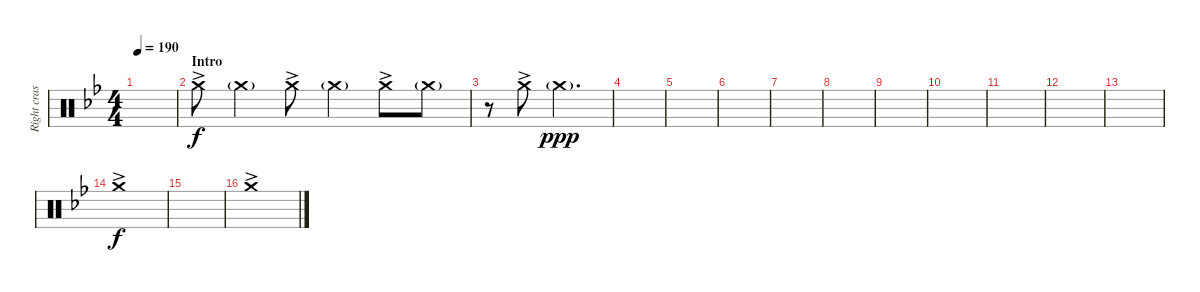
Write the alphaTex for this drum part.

\track ("Right crash" "Right cras") {instrument percussion}
\staff {score}
\articulation defaults
\ts (4 4)
\tempo 190
\clef neutral
\ks bb
|
\section ("" "Intro")
"Crash medium (hit)"{ac}.8 "Crash medium (hit)"{g}.4 "Crash medium (hit)"{ac}.8 "Crash medium (hit)"{g}.4 "Crash medium (hit)"{ac}.8 "Crash medium (hit)"{g}.8 |
r.8 "Crash medium (hit)"{ac}.8 "Crash medium (hit)"{g}.2{d dy ppp} |
|
|
|
|
|
|
|
|
|
|
"Crash medium (hit)"{ac}.1{dy f} |
|
"Crash medium (hit)"{ac}.1
